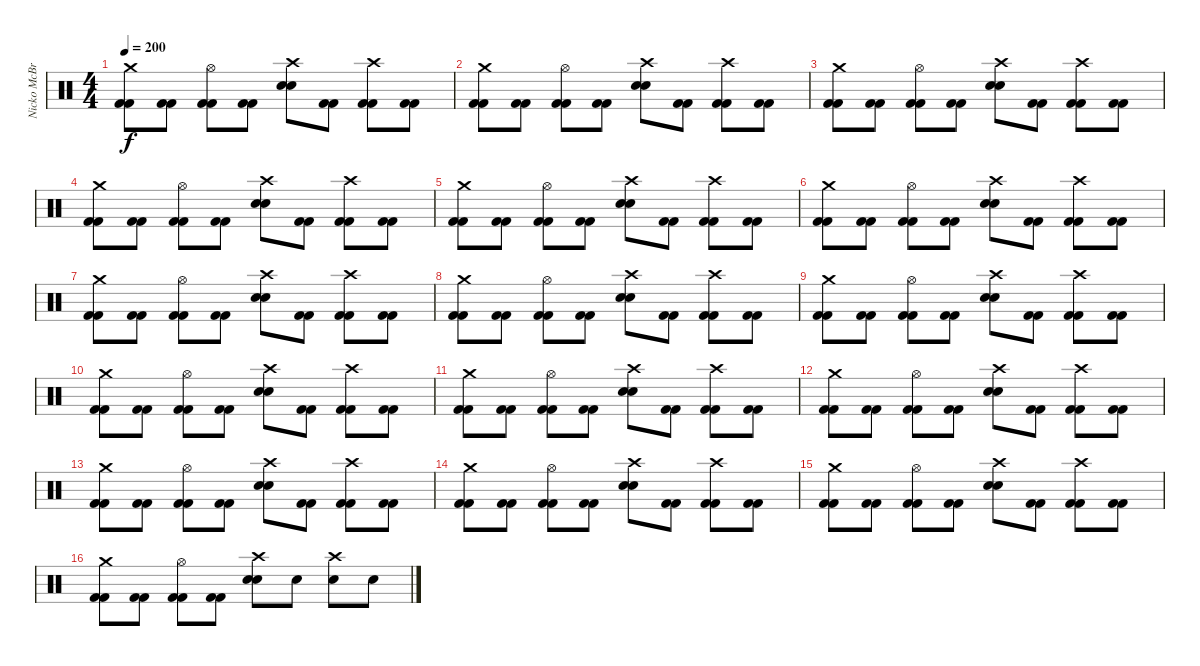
\track ("Nicko McBrain" "Nicko McBr") {instrument percussion}
\staff {score}
\articulation defaults
\ts (4 4)
\tempo 200
\clef neutral
\ks c
("Crash medium (hit)" "Kick (hit) 2" "Kick (hit) 2").8{dy f} ("Kick (hit) 2" "Kick (hit) 2").8 ("Hi-Hat (open)" "Kick (hit) 2" "Kick (hit) 2").8 ("Kick (hit) 2" "Kick (hit) 2").8 ("Crash high (hit)" "Snare (hit) 2" "Snare (hit) 2").8 ("Kick (hit) 2" "Kick (hit) 2").8 ("Crash high (hit)" "Kick (hit) 2" "Kick (hit) 2").8 ("Kick (hit) 2" "Kick (hit) 2").8 |
("Crash medium (hit)" "Kick (hit) 2" "Kick (hit) 2").8 ("Kick (hit) 2" "Kick (hit) 2").8 ("Hi-Hat (open)" "Kick (hit) 2" "Kick (hit) 2").8 ("Kick (hit) 2" "Kick (hit) 2").8 ("Crash high (hit)" "Snare (hit) 2" "Snare (hit) 2").8 ("Kick (hit) 2" "Kick (hit) 2").8 ("Crash high (hit)" "Kick (hit) 2" "Kick (hit) 2").8 ("Kick (hit) 2" "Kick (hit) 2").8 |
("Crash medium (hit)" "Kick (hit) 2" "Kick (hit) 2").8 ("Kick (hit) 2" "Kick (hit) 2").8 ("Hi-Hat (open)" "Kick (hit) 2" "Kick (hit) 2").8 ("Kick (hit) 2" "Kick (hit) 2").8 ("Crash high (hit)" "Snare (hit) 2" "Snare (hit) 2").8 ("Kick (hit) 2" "Kick (hit) 2").8 ("Crash high (hit)" "Kick (hit) 2" "Kick (hit) 2").8 ("Kick (hit) 2" "Kick (hit) 2").8 |
("Crash medium (hit)" "Kick (hit) 2" "Kick (hit) 2").8 ("Kick (hit) 2" "Kick (hit) 2").8 ("Hi-Hat (open)" "Kick (hit) 2" "Kick (hit) 2").8 ("Kick (hit) 2" "Kick (hit) 2").8 ("Crash high (hit)" "Snare (hit) 2" "Snare (hit) 2").8 ("Kick (hit) 2" "Kick (hit) 2").8 ("Crash high (hit)" "Kick (hit) 2" "Kick (hit) 2").8 ("Kick (hit) 2" "Kick (hit) 2").8 |
("Crash medium (hit)" "Kick (hit) 2" "Kick (hit) 2").8 ("Kick (hit) 2" "Kick (hit) 2").8 ("Hi-Hat (open)" "Kick (hit) 2" "Kick (hit) 2").8 ("Kick (hit) 2" "Kick (hit) 2").8 ("Crash high (hit)" "Snare (hit) 2" "Snare (hit) 2").8 ("Kick (hit) 2" "Kick (hit) 2").8 ("Crash high (hit)" "Kick (hit) 2" "Kick (hit) 2").8 ("Kick (hit) 2" "Kick (hit) 2").8 |
("Crash medium (hit)" "Kick (hit) 2" "Kick (hit) 2").8 ("Kick (hit) 2" "Kick (hit) 2").8 ("Hi-Hat (open)" "Kick (hit) 2" "Kick (hit) 2").8 ("Kick (hit) 2" "Kick (hit) 2").8 ("Crash high (hit)" "Snare (hit) 2" "Snare (hit) 2").8 ("Kick (hit) 2" "Kick (hit) 2").8 ("Crash high (hit)" "Kick (hit) 2" "Kick (hit) 2").8 ("Kick (hit) 2" "Kick (hit) 2").8 |
("Crash medium (hit)" "Kick (hit) 2" "Kick (hit) 2").8 ("Kick (hit) 2" "Kick (hit) 2").8 ("Hi-Hat (open)" "Kick (hit) 2" "Kick (hit) 2").8 ("Kick (hit) 2" "Kick (hit) 2").8 ("Crash high (hit)" "Snare (hit) 2" "Snare (hit) 2").8 ("Kick (hit) 2" "Kick (hit) 2").8 ("Crash high (hit)" "Kick (hit) 2" "Kick (hit) 2").8 ("Kick (hit) 2" "Kick (hit) 2").8 |
("Crash medium (hit)" "Kick (hit) 2" "Kick (hit) 2").8 ("Kick (hit) 2" "Kick (hit) 2").8 ("Hi-Hat (open)" "Kick (hit) 2" "Kick (hit) 2").8 ("Kick (hit) 2" "Kick (hit) 2").8 ("Crash high (hit)" "Snare (hit) 2" "Snare (hit) 2").8 ("Kick (hit) 2" "Kick (hit) 2").8 ("Crash high (hit)" "Kick (hit) 2" "Kick (hit) 2").8 ("Kick (hit) 2" "Kick (hit) 2").8 |
("Crash medium (hit)" "Kick (hit) 2" "Kick (hit) 2").8 ("Kick (hit) 2" "Kick (hit) 2").8 ("Hi-Hat (open)" "Kick (hit) 2" "Kick (hit) 2").8 ("Kick (hit) 2" "Kick (hit) 2").8 ("Crash high (hit)" "Snare (hit) 2" "Snare (hit) 2").8 ("Kick (hit) 2" "Kick (hit) 2").8 ("Crash high (hit)" "Kick (hit) 2" "Kick (hit) 2").8 ("Kick (hit) 2" "Kick (hit) 2").8 |
("Crash medium (hit)" "Kick (hit) 2" "Kick (hit) 2").8 ("Kick (hit) 2" "Kick (hit) 2").8 ("Hi-Hat (open)" "Kick (hit) 2" "Kick (hit) 2").8 ("Kick (hit) 2" "Kick (hit) 2").8 ("Crash high (hit)" "Snare (hit) 2" "Snare (hit) 2").8 ("Kick (hit) 2" "Kick (hit) 2").8 ("Crash high (hit)" "Kick (hit) 2" "Kick (hit) 2").8 ("Kick (hit) 2" "Kick (hit) 2").8 |
("Crash medium (hit)" "Kick (hit) 2" "Kick (hit) 2").8 ("Kick (hit) 2" "Kick (hit) 2").8 ("Hi-Hat (open)" "Kick (hit) 2" "Kick (hit) 2").8 ("Kick (hit) 2" "Kick (hit) 2").8 ("Crash high (hit)" "Snare (hit) 2" "Snare (hit) 2").8 ("Kick (hit) 2" "Kick (hit) 2").8 ("Crash high (hit)" "Kick (hit) 2" "Kick (hit) 2").8 ("Kick (hit) 2" "Kick (hit) 2").8 |
("Crash medium (hit)" "Kick (hit) 2" "Kick (hit) 2").8 ("Kick (hit) 2" "Kick (hit) 2").8 ("Hi-Hat (open)" "Kick (hit) 2" "Kick (hit) 2").8 ("Kick (hit) 2" "Kick (hit) 2").8 ("Crash high (hit)" "Snare (hit) 2" "Snare (hit) 2").8 ("Kick (hit) 2" "Kick (hit) 2").8 ("Crash high (hit)" "Kick (hit) 2" "Kick (hit) 2").8 ("Kick (hit) 2" "Kick (hit) 2").8 |
("Crash medium (hit)" "Kick (hit) 2" "Kick (hit) 2").8 ("Kick (hit) 2" "Kick (hit) 2").8 ("Hi-Hat (open)" "Kick (hit) 2" "Kick (hit) 2").8 ("Kick (hit) 2" "Kick (hit) 2").8 ("Crash high (hit)" "Snare (hit) 2" "Snare (hit) 2").8 ("Kick (hit) 2" "Kick (hit) 2").8 ("Crash high (hit)" "Kick (hit) 2" "Kick (hit) 2").8 ("Kick (hit) 2" "Kick (hit) 2").8 |
("Crash medium (hit)" "Kick (hit) 2" "Kick (hit) 2").8 ("Kick (hit) 2" "Kick (hit) 2").8 ("Hi-Hat (open)" "Kick (hit) 2" "Kick (hit) 2").8 ("Kick (hit) 2" "Kick (hit) 2").8 ("Crash high (hit)" "Snare (hit) 2" "Snare (hit) 2").8 ("Kick (hit) 2" "Kick (hit) 2").8 ("Crash high (hit)" "Kick (hit) 2" "Kick (hit) 2").8 ("Kick (hit) 2" "Kick (hit) 2").8 |
("Crash medium (hit)" "Kick (hit) 2" "Kick (hit) 2").8 ("Kick (hit) 2" "Kick (hit) 2").8 ("Hi-Hat (open)" "Kick (hit) 2" "Kick (hit) 2").8 ("Kick (hit) 2" "Kick (hit) 2").8 ("Crash high (hit)" "Snare (hit) 2" "Snare (hit) 2").8 ("Kick (hit) 2" "Kick (hit) 2").8 ("Crash high (hit)" "Kick (hit) 2" "Kick (hit) 2").8 ("Kick (hit) 2" "Kick (hit) 2").8 |
("Crash medium (hit)" "Kick (hit) 2" "Kick (hit) 2").8 ("Kick (hit) 2" "Kick (hit) 2").8 ("Hi-Hat (open)" "Kick (hit) 2" "Kick (hit) 2").8 ("Kick (hit) 2" "Kick (hit) 2").8 ("Crash high (hit)" "Snare (hit) 2" "Snare (hit) 2").8 "Snare (hit) 2".8 ("Crash high (hit)" "Snare (hit) 2").8 "Snare (hit) 2".8
